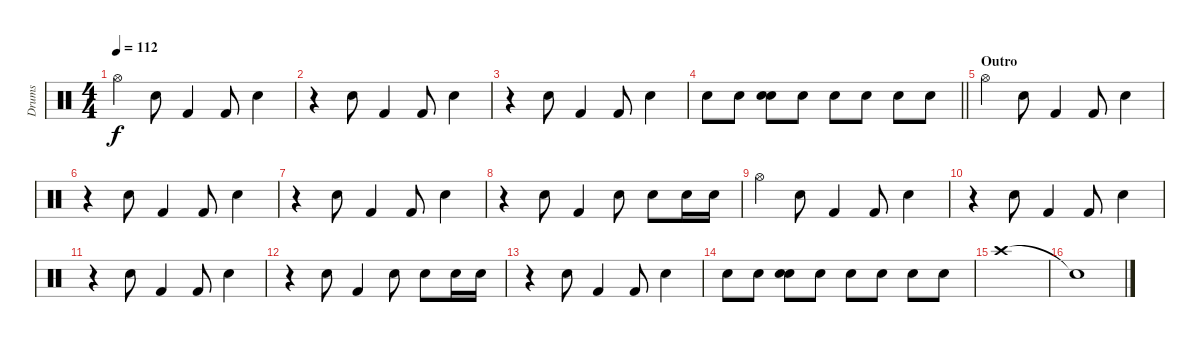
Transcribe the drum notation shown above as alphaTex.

\track ("Drums" "Drums") {instrument percussion}
\staff {score}
\articulation defaults
\ts (4 4)
\tempo 112
\clef neutral
\ks c "Hi-Hat (open)".4{dy f} "Electric Snare (hit)".8 "Kick (hit) 2".4 "Kick (hit) 2".8 "Electric Snare (hit)".4
|
r.4 "Electric Snare (hit)".8 "Kick (hit) 2".4 "Kick (hit) 2".8 "Electric Snare (hit)".4 |
r.4 "Electric Snare (hit)".8 "Kick (hit) 2".4 "Kick (hit) 2".8 "Electric Snare (hit)".4 |
\barLineRight lightlight "Electric Snare (hit)".8 "Electric Snare (hit)".8
("Electric Snare (hit)" "Snare (hit)").8 "Electric Snare (hit)".8 "Electric Snare (hit)".8 "Electric Snare (hit)".8 "Electric Snare (hit)".8 "Electric Snare (hit)".8 |
\section ("" "Outro")
"Hi-Hat (open)".4 "Electric Snare (hit)".8 "Kick (hit) 2".4 "Kick (hit) 2".8 "Electric Snare (hit)".4 |
r.4 "Electric Snare (hit)".8 "Kick (hit) 2".4 "Kick (hit) 2".8 "Electric Snare (hit)".4 |
r.4 "Electric Snare (hit)".8 "Kick (hit) 2".4 "Kick (hit) 2".8 "Electric Snare (hit)".4 |
r.4 "Electric Snare (hit)".8 "Kick (hit) 2".4 "Electric Snare (hit)".8 "Electric Snare (hit)".8 "Electric Snare (hit)".16 "Electric Snare (hit)".16 |
"Hi-Hat (open)".4 "Electric Snare (hit)".8 "Kick (hit) 2".4 "Kick (hit) 2".8 "Electric Snare (hit)".4 |
r.4 "Electric Snare (hit)".8 "Kick (hit) 2".4 "Kick (hit) 2".8 "Electric Snare (hit)".4 |
r.4 "Electric Snare (hit)".8 "Kick (hit) 2".4 "Kick (hit) 2".8 "Electric Snare (hit)".4 |
r.4 "Electric Snare (hit)".8 "Kick (hit) 2".4 "Electric Snare (hit)".8 "Electric Snare (hit)".8 "Electric Snare (hit)".16 "Electric Snare (hit)".16 |
r.4 "Electric Snare (hit)".8 "Kick (hit) 2".4 "Kick (hit) 2".8 "Electric Snare (hit)".4 |
"Electric Snare (hit)".8 "Electric Snare (hit)".8 ("Electric Snare (hit)" "Snare (hit)").8 "Electric Snare (hit)".8 "Electric Snare (hit)".8 "Electric Snare (hit)".8 "Electric Snare (hit)".8 "Electric Snare (hit)".8 |
"Crash high (hit)".1 |
"Snare (hit)"{t}.1
